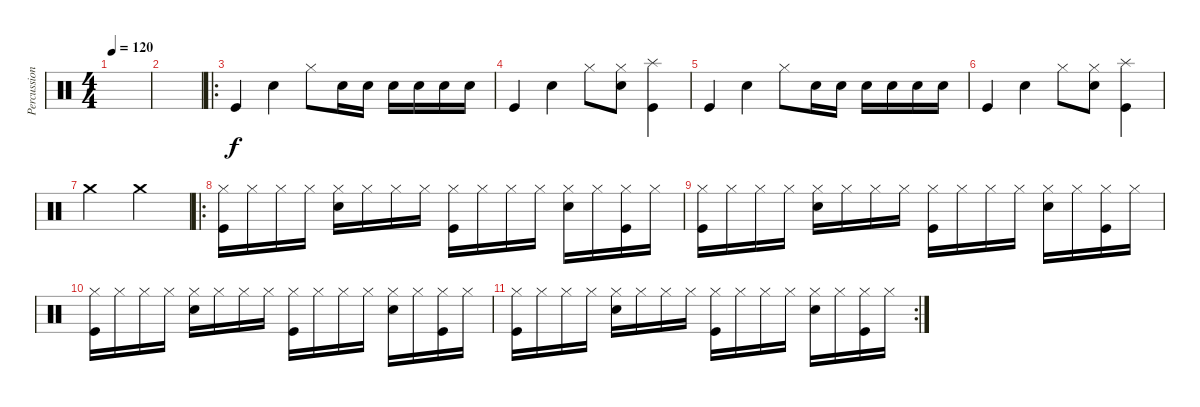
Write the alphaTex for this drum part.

\track ("Percussion" "Percussion") {instrument percussion}
\staff {score}
\articulation defaults
\ts (4 4)
\tempo 120
\clef neutral
\ks c
|
|
\ro "Kick (hit)".4 "Snare (hit) 2".4 "Hi-Hat (closed)".8 "Snare (hit) 2".16 "Snare (hit) 2".16 "Snare (hit) 2".16 "Snare (hit) 2".16 "Snare (hit) 2".16 "Snare (hit) 2".16
|
"Kick (hit)".4 "Snare (hit) 2".4 "Hi-Hat (closed)".8 ("Hi-Hat (closed)" "Snare (hit) 2").8 ("Splash (hit)" "Kick (hit)").4 |
"Kick (hit)".4 "Snare (hit) 2".4 "Hi-Hat (closed)".8 "Snare (hit) 2".16 "Snare (hit) 2".16 "Snare (hit) 2".16 "Snare (hit) 2".16 "Snare (hit) 2".16 "Snare (hit) 2".16 |
"Kick (hit)".4 "Snare (hit) 2".4 "Hi-Hat (closed)".8 ("Hi-Hat (closed)" "Snare (hit) 2").8 ("Splash (hit)" "Kick (hit)").4 |
"Crash medium (hit)".2 "Crash medium (hit)".2 |
\ro
("Hi-Hat (closed)" "Kick (hit)").16 "Hi-Hat (closed)".16 "Hi-Hat (closed)".16 "Hi-Hat (closed)".16 ("Hi-Hat (closed)" "Snare (hit) 2").16 "Hi-Hat (closed)".16 "Hi-Hat (closed)".16 "Hi-Hat (closed)".16 ("Hi-Hat (closed)" "Kick (hit)").16 "Hi-Hat (closed)".16 "Hi-Hat (closed)".16 "Hi-Hat (closed)".16 ("Hi-Hat (closed)" "Snare (hit) 2").16 "Hi-Hat (closed)".16 ("Hi-Hat (closed)" "Kick (hit)").16 "Hi-Hat (closed)".16 |
("Hi-Hat (closed)" "Kick (hit)").16 "Hi-Hat (closed)".16 "Hi-Hat (closed)".16 "Hi-Hat (closed)".16 ("Hi-Hat (closed)" "Snare (hit) 2").16 "Hi-Hat (closed)".16 "Hi-Hat (closed)".16 "Hi-Hat (closed)".16 ("Hi-Hat (closed)" "Kick (hit)").16 "Hi-Hat (closed)".16 "Hi-Hat (closed)".16 "Hi-Hat (closed)".16 ("Hi-Hat (closed)" "Snare (hit) 2").16 "Hi-Hat (closed)".16 ("Hi-Hat (closed)" "Kick (hit)").16 "Hi-Hat (closed)".16 |
("Hi-Hat (closed)" "Kick (hit)").16 "Hi-Hat (closed)".16 "Hi-Hat (closed)".16 "Hi-Hat (closed)".16 ("Hi-Hat (closed)" "Snare (hit) 2").16 "Hi-Hat (closed)".16 "Hi-Hat (closed)".16 "Hi-Hat (closed)".16 ("Hi-Hat (closed)" "Kick (hit)").16 "Hi-Hat (closed)".16 "Hi-Hat (closed)".16 "Hi-Hat (closed)".16 ("Hi-Hat (closed)" "Snare (hit) 2").16 "Hi-Hat (closed)".16 ("Hi-Hat (closed)" "Kick (hit)").16 "Hi-Hat (closed)".16 |
\rc 2
("Hi-Hat (closed)" "Kick (hit)").16 "Hi-Hat (closed)".16 "Hi-Hat (closed)".16 "Hi-Hat (closed)".16 ("Hi-Hat (closed)" "Snare (hit) 2").16 "Hi-Hat (closed)".16 "Hi-Hat (closed)".16 "Hi-Hat (closed)".16 ("Hi-Hat (closed)" "Kick (hit)").16 "Hi-Hat (closed)".16 "Hi-Hat (closed)".16 "Hi-Hat (closed)".16 ("Hi-Hat (closed)" "Snare (hit) 2").16 "Hi-Hat (closed)".16 ("Hi-Hat (closed)" "Kick (hit)").16 "Hi-Hat (closed)".16
